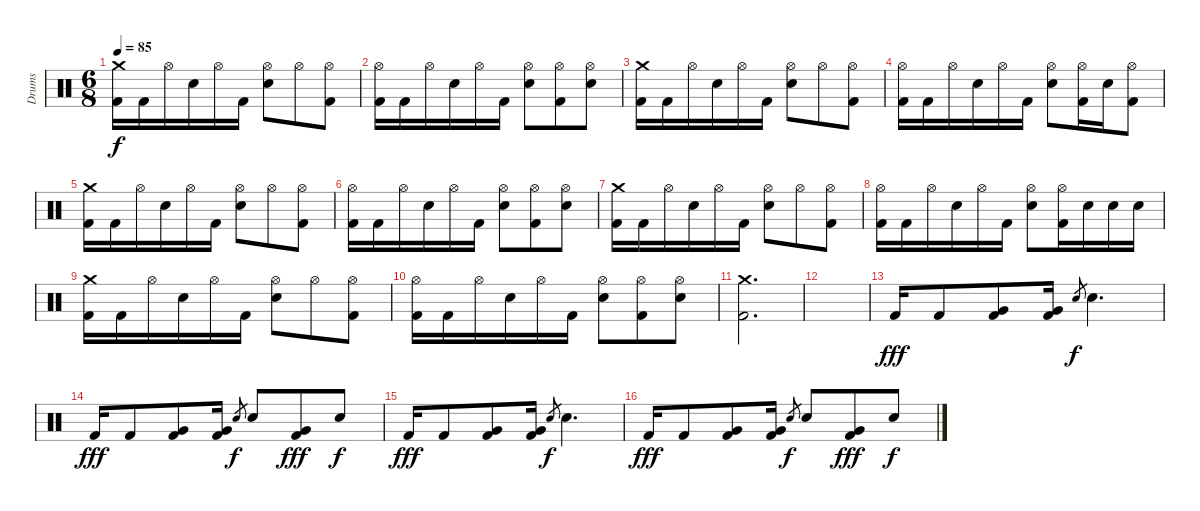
\track ("Drums" "Drums") {instrument percussion}
\staff {score}
\articulation defaults
\ts (6 8)
\tempo 85
\clef neutral
\ks c
("Crash medium (hit)" "Kick (hit) 2").16{dy f} "Kick (hit) 2".16 "Hi-Hat (open)".16 "Electric Snare (hit)".16 "Hi-Hat (open)".16 "Kick (hit) 2".16 ("Hi-Hat (open)" "Electric Snare (hit)").8 "Hi-Hat (open)".8 ("Hi-Hat (open)" "Kick (hit) 2").8 |
("Hi-Hat (open)" "Kick (hit) 2").16 "Kick (hit) 2".16 "Hi-Hat (open)".16 "Electric Snare (hit)".16 "Hi-Hat (open)".16 "Kick (hit) 2".16 ("Hi-Hat (open)" "Electric Snare (hit)").8 ("Hi-Hat (open)" "Kick (hit) 2").8 ("Hi-Hat (open)" "Electric Snare (hit)").8 |
("Crash medium (hit)" "Kick (hit) 2").16 "Kick (hit) 2".16 "Hi-Hat (open)".16 "Electric Snare (hit)".16 "Hi-Hat (open)".16 "Kick (hit) 2".16 ("Hi-Hat (open)" "Electric Snare (hit)").8 "Hi-Hat (open)".8 ("Hi-Hat (open)" "Kick (hit) 2").8 |
("Hi-Hat (open)" "Kick (hit) 2").16 "Kick (hit) 2".16 "Hi-Hat (open)".16 "Electric Snare (hit)".16 "Hi-Hat (open)".16 "Kick (hit) 2".16 ("Hi-Hat (open)" "Electric Snare (hit)").8 ("Hi-Hat (open)" "Kick (hit) 2").16 "Electric Snare (hit)".16 ("Hi-Hat (open)" "Kick (hit) 2").8 |
("Crash medium (hit)" "Kick (hit) 2").16 "Kick (hit) 2".16 "Hi-Hat (open)".16 "Electric Snare (hit)".16 "Hi-Hat (open)".16 "Kick (hit) 2".16 ("Hi-Hat (open)" "Electric Snare (hit)").8 "Hi-Hat (open)".8 ("Hi-Hat (open)" "Kick (hit) 2").8 |
("Hi-Hat (open)" "Kick (hit) 2").16 "Kick (hit) 2".16 "Hi-Hat (open)".16 "Electric Snare (hit)".16 "Hi-Hat (open)".16 "Kick (hit) 2".16 ("Hi-Hat (open)" "Electric Snare (hit)").8 ("Hi-Hat (open)" "Kick (hit) 2").8 ("Hi-Hat (open)" "Electric Snare (hit)").8 |
("Crash medium (hit)" "Kick (hit) 2").16 "Kick (hit) 2".16 "Hi-Hat (open)".16 "Electric Snare (hit)".16 "Hi-Hat (open)".16 "Kick (hit) 2".16 ("Hi-Hat (open)" "Electric Snare (hit)").8 "Hi-Hat (open)".8 ("Hi-Hat (open)" "Kick (hit) 2").8 |
("Hi-Hat (open)" "Kick (hit) 2").16 "Kick (hit) 2".16 "Hi-Hat (open)".16 "Electric Snare (hit)".16 "Hi-Hat (open)".16 "Kick (hit) 2".16 ("Hi-Hat (open)" "Electric Snare (hit)").8 ("Hi-Hat (open)" "Kick (hit) 2").16 "Electric Snare (hit)".16 "Electric Snare (hit)".16 "Electric Snare (hit)".16 |
("Crash medium (hit)" "Kick (hit) 2").16 "Kick (hit) 2".16 "Hi-Hat (open)".16 "Electric Snare (hit)".16 "Hi-Hat (open)".16 "Kick (hit) 2".16 ("Hi-Hat (open)" "Electric Snare (hit)").8 "Hi-Hat (open)".8 ("Hi-Hat (open)" "Kick (hit) 2").8 |
("Hi-Hat (open)" "Kick (hit) 2").16 "Kick (hit) 2".16 "Hi-Hat (open)".16 "Electric Snare (hit)".16 "Hi-Hat (open)".16 "Kick (hit) 2".16 ("Hi-Hat (open)" "Electric Snare (hit)").8 ("Hi-Hat (open)" "Kick (hit) 2").8 ("Hi-Hat (open)" "Electric Snare (hit)").8 |
("Crash medium (hit)" "Kick (hit) 2").2{d} |
|
"Kick (hit) 2".16{dy fff} "Kick (hit) 2".8 ("Very Low Tom (hit)" "Kick (hit) 2").8 ("Very Low Tom (hit)" "Kick (hit) 2").16 "Electric Snare (hit)".8{gr dy f} "Electric Snare (hit)".4{d} |
"Kick (hit) 2".16{dy fff} "Kick (hit) 2".8 ("Very Low Tom (hit)" "Kick (hit) 2").8 ("Very Low Tom (hit)" "Kick (hit) 2").16 "Electric Snare (hit)".8{gr dy f} "Electric Snare (hit)".8 ("Very Low Tom (hit)" "Kick (hit) 2").8{dy fff} "Electric Snare (hit)".8{dy f} |
"Kick (hit) 2".16{dy fff} "Kick (hit) 2".8 ("Very Low Tom (hit)" "Kick (hit) 2").8 ("Very Low Tom (hit)" "Kick (hit) 2").16 "Electric Snare (hit)".8{gr dy f} "Electric Snare (hit)".4{d} |
"Kick (hit) 2".16{dy fff} "Kick (hit) 2".8 ("Very Low Tom (hit)" "Kick (hit) 2").8 ("Very Low Tom (hit)" "Kick (hit) 2").16 "Electric Snare (hit)".8{gr dy f} "Electric Snare (hit)".8 ("Very Low Tom (hit)" "Kick (hit) 2").8{dy fff} "Electric Snare (hit)".8{dy f}
